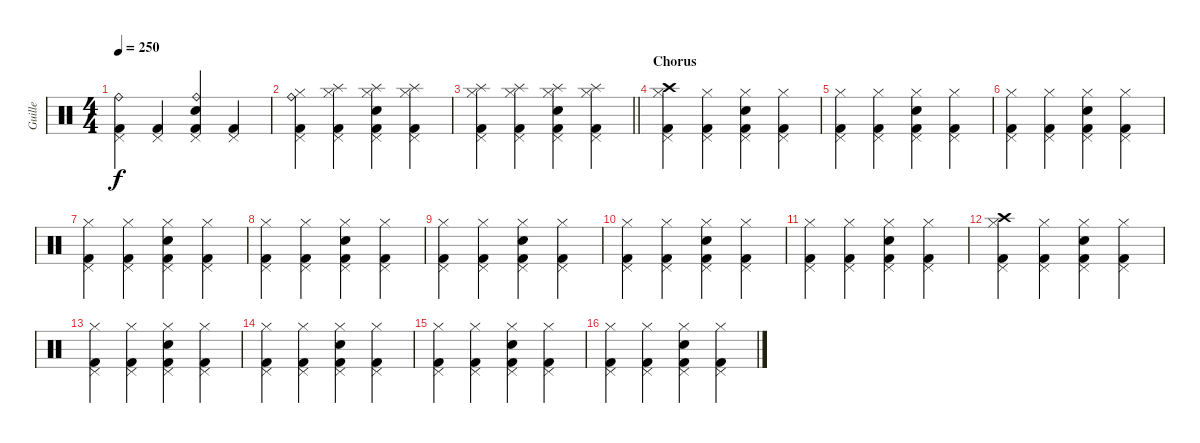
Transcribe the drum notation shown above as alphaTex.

\track ("Guille" "Guille") {instrument percussion}
\staff
\articulation defaults
\ts (4 4)
\tempo 250
\clef neutral
\ks c
("Kick (hit) 2" "Pedal Hi-Hat (hit)" "Ride (bell)").4{dy f} ("Kick (hit) 2" "Pedal Hi-Hat (hit)").4 ("Kick (hit) 2" "Electric Snare (hit)" "Pedal Hi-Hat (hit)" "Ride (bell)").4 ("Kick (hit) 2" "Pedal Hi-Hat (hit)").4 |
("Kick (hit) 2" "Hi-Hat (closed)" "Pedal Hi-Hat (hit)" "Ride (bell)").4 ("Kick (hit) 2" "Hi-Hat (closed)" "Pedal Hi-Hat (hit)" "Splash (hit)").4 ("Kick (hit) 2" "Electric Snare (hit)" "Hi-Hat (closed)" "Pedal Hi-Hat (hit)" "Splash (hit)").4 ("Kick (hit) 2" "Hi-Hat (closed)" "Pedal Hi-Hat (hit)" "Splash (hit)").4 |
\barLineRight lightlight
("Kick (hit) 2" "Hi-Hat (closed)" "Pedal Hi-Hat (hit)" "Splash (hit)").4 ("Kick (hit) 2" "Hi-Hat (closed)" "Pedal Hi-Hat (hit)" "Splash (hit)").4 ("Kick (hit) 2" "Electric Snare (hit)" "Hi-Hat (closed)" "Pedal Hi-Hat (hit)" "Splash (hit)").4 ("Kick (hit) 2" "Hi-Hat (closed)" "Pedal Hi-Hat (hit)" "Splash (hit)").4 |
\section ("" "Chorus")
("Kick (hit) 2" "Hi-Hat (closed)" "Pedal Hi-Hat (hit)" "Crash high (hit)").4 ("Kick (hit) 2" "Hi-Hat (closed)" "Pedal Hi-Hat (hit)").4 ("Kick (hit) 2" "Electric Snare (hit)" "Hi-Hat (closed)" "Pedal Hi-Hat (hit)").4 ("Kick (hit) 2" "Hi-Hat (closed)" "Pedal Hi-Hat (hit)").4 |
("Kick (hit) 2" "Hi-Hat (closed)" "Pedal Hi-Hat (hit)").4 ("Kick (hit) 2" "Hi-Hat (closed)" "Pedal Hi-Hat (hit)").4 ("Kick (hit) 2" "Electric Snare (hit)" "Hi-Hat (closed)" "Pedal Hi-Hat (hit)").4 ("Kick (hit) 2" "Hi-Hat (closed)" "Pedal Hi-Hat (hit)").4 |
("Kick (hit) 2" "Hi-Hat (closed)" "Pedal Hi-Hat (hit)").4 ("Kick (hit) 2" "Hi-Hat (closed)" "Pedal Hi-Hat (hit)").4 ("Kick (hit) 2" "Electric Snare (hit)" "Hi-Hat (closed)" "Pedal Hi-Hat (hit)").4 ("Kick (hit) 2" "Hi-Hat (closed)" "Pedal Hi-Hat (hit)").4 |
("Kick (hit) 2" "Hi-Hat (closed)" "Pedal Hi-Hat (hit)").4 ("Kick (hit) 2" "Hi-Hat (closed)" "Pedal Hi-Hat (hit)").4 ("Kick (hit) 2" "Electric Snare (hit)" "Hi-Hat (closed)" "Pedal Hi-Hat (hit)").4 ("Kick (hit) 2" "Hi-Hat (closed)" "Pedal Hi-Hat (hit)").4 |
("Kick (hit) 2" "Hi-Hat (closed)" "Pedal Hi-Hat (hit)").4 ("Kick (hit) 2" "Hi-Hat (closed)" "Pedal Hi-Hat (hit)").4 ("Kick (hit) 2" "Electric Snare (hit)" "Hi-Hat (closed)" "Pedal Hi-Hat (hit)").4 ("Kick (hit) 2" "Hi-Hat (closed)" "Pedal Hi-Hat (hit)").4 |
("Kick (hit) 2" "Hi-Hat (closed)" "Pedal Hi-Hat (hit)").4 ("Kick (hit) 2" "Hi-Hat (closed)" "Pedal Hi-Hat (hit)").4 ("Kick (hit) 2" "Electric Snare (hit)" "Hi-Hat (closed)" "Pedal Hi-Hat (hit)").4 ("Kick (hit) 2" "Hi-Hat (closed)" "Pedal Hi-Hat (hit)").4 |
("Kick (hit) 2" "Hi-Hat (closed)" "Pedal Hi-Hat (hit)").4 ("Kick (hit) 2" "Hi-Hat (closed)" "Pedal Hi-Hat (hit)").4 ("Kick (hit) 2" "Electric Snare (hit)" "Hi-Hat (closed)" "Pedal Hi-Hat (hit)").4 ("Kick (hit) 2" "Hi-Hat (closed)" "Pedal Hi-Hat (hit)").4 |
("Kick (hit) 2" "Hi-Hat (closed)" "Pedal Hi-Hat (hit)").4 ("Kick (hit) 2" "Hi-Hat (closed)" "Pedal Hi-Hat (hit)").4 ("Kick (hit) 2" "Electric Snare (hit)" "Hi-Hat (closed)" "Pedal Hi-Hat (hit)").4 ("Kick (hit) 2" "Hi-Hat (closed)" "Pedal Hi-Hat (hit)").4 |
("Kick (hit) 2" "Hi-Hat (closed)" "Pedal Hi-Hat (hit)" "Crash high (hit)").4 ("Kick (hit) 2" "Hi-Hat (closed)" "Pedal Hi-Hat (hit)").4 ("Kick (hit) 2" "Electric Snare (hit)" "Hi-Hat (closed)" "Pedal Hi-Hat (hit)").4 ("Kick (hit) 2" "Hi-Hat (closed)" "Pedal Hi-Hat (hit)").4 |
("Kick (hit) 2" "Hi-Hat (closed)" "Pedal Hi-Hat (hit)").4 ("Kick (hit) 2" "Hi-Hat (closed)" "Pedal Hi-Hat (hit)").4 ("Kick (hit) 2" "Electric Snare (hit)" "Hi-Hat (closed)" "Pedal Hi-Hat (hit)").4 ("Kick (hit) 2" "Hi-Hat (closed)" "Pedal Hi-Hat (hit)").4 |
("Kick (hit) 2" "Hi-Hat (closed)" "Pedal Hi-Hat (hit)").4 ("Kick (hit) 2" "Hi-Hat (closed)" "Pedal Hi-Hat (hit)").4 ("Kick (hit) 2" "Electric Snare (hit)" "Hi-Hat (closed)" "Pedal Hi-Hat (hit)").4 ("Kick (hit) 2" "Hi-Hat (closed)" "Pedal Hi-Hat (hit)").4 |
("Kick (hit) 2" "Hi-Hat (closed)" "Pedal Hi-Hat (hit)").4 ("Kick (hit) 2" "Hi-Hat (closed)" "Pedal Hi-Hat (hit)").4 ("Kick (hit) 2" "Electric Snare (hit)" "Hi-Hat (closed)" "Pedal Hi-Hat (hit)").4 ("Kick (hit) 2" "Hi-Hat (closed)" "Pedal Hi-Hat (hit)").4 |
("Kick (hit) 2" "Hi-Hat (closed)" "Pedal Hi-Hat (hit)").4 ("Kick (hit) 2" "Hi-Hat (closed)" "Pedal Hi-Hat (hit)").4 ("Kick (hit) 2" "Electric Snare (hit)" "Hi-Hat (closed)" "Pedal Hi-Hat (hit)").4 ("Kick (hit) 2" "Hi-Hat (closed)" "Pedal Hi-Hat (hit)").4
